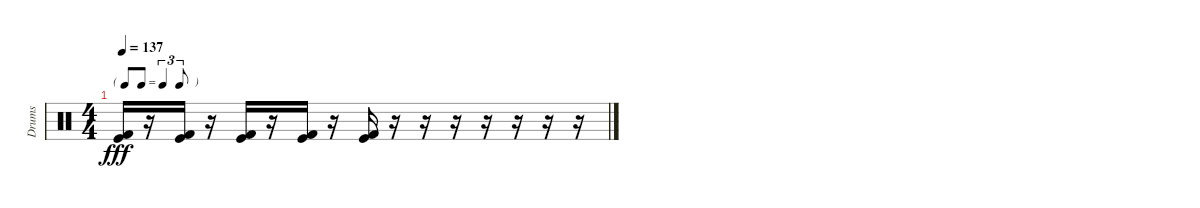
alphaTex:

\track ("Drums" "Drums") {instrument percussion}
\staff {score}
\articulation defaults
\ts (4 4)
\tf triplet8th
\tempo 137
\clef neutral
\ks c
("Kick (hit)" "Kick (hit) 2").16{dy fff} r.16 ("Kick (hit)" "Kick (hit) 2").16 r.16 ("Kick (hit)" "Kick (hit) 2").16 r.16 ("Kick (hit)" "Kick (hit) 2").16 r.16 ("Kick (hit)" "Kick (hit) 2").16 r.16 r.16 r.16 r.16 r.16 r.16 r.16
